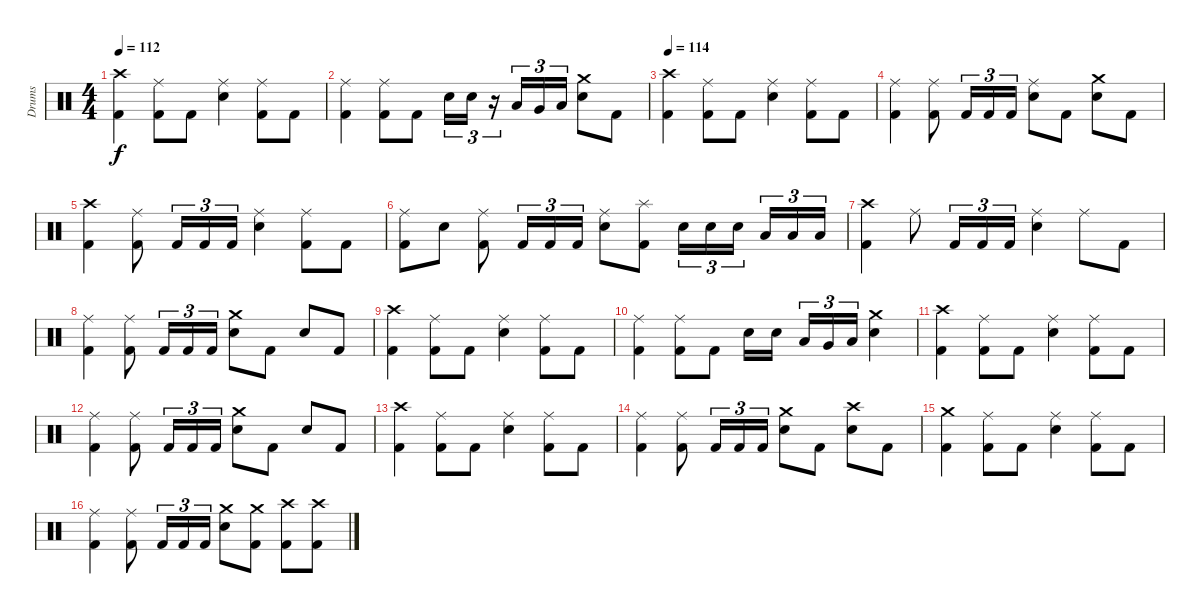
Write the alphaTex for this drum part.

\track ("Drums" "Drums") {instrument percussion}
\staff {score}
\articulation defaults
\ts (4 4)
\tempo 112
\clef neutral
\ks c
("Crash high (hit)" "Kick (hit) 2").4{dy f} ("Ride (middle)" "Kick (hit) 2").8 "Kick (hit) 2".8 ("Ride (middle)" "Electric Snare (hit)").4 ("Ride (middle)" "Kick (hit) 2").8 "Kick (hit) 2".8 |
("Ride (middle)" "Kick (hit) 2").4 ("Ride (middle)" "Kick (hit) 2").8 "Kick (hit) 2".8 "Electric Snare (hit)".16{tu (3 2)} "Electric Snare (hit)".16{tu (3 2)} r.16{tu (3 2)} "Low Tom (hit)".16{tu (3 2)} "Very Low Tom (hit)".16{tu (3 2)} "Low Floor Tom (hit)".16{tu (3 2)} ("Crash medium (hit)" "Electric Snare (hit)").8 "Kick (hit) 2".8 |
\tempo 114
("Crash high (hit)" "Kick (hit) 2").4 ("Ride (middle)" "Kick (hit) 2").8 "Kick (hit) 2".8 ("Ride (middle)" "Electric Snare (hit)").4 ("Ride (middle)" "Kick (hit) 2").8 "Kick (hit) 2".8 |
("Ride (middle)" "Kick (hit) 2").4 ("Ride (middle)" "Kick (hit) 2").8 "Kick (hit) 2".16{tu (3 2)} "Kick (hit) 2".16{tu (3 2)} "Kick (hit) 2".16{tu (3 2)} ("Ride (middle)" "Electric Snare (hit)").8 "Kick (hit) 2".8 ("Crash medium (hit)" "Electric Snare (hit)").8 "Kick (hit) 2".8 |
("Crash high (hit)" "Kick (hit) 2").4 ("Ride (middle)" "Kick (hit) 2").8 "Kick (hit) 2".16{tu (3 2)} "Kick (hit) 2".16{tu (3 2)} "Kick (hit) 2".16{tu (3 2)} ("Ride (middle)" "Electric Snare (hit)").4 ("Ride (middle)" "Kick (hit) 2").8 "Kick (hit) 2".8 |
("Ride (middle)" "Kick (hit) 2").8 "Electric Snare (hit)".8 ("Ride (middle)" "Kick (hit) 2").8 "Kick (hit) 2".16{tu (3 2)} "Kick (hit) 2".16{tu (3 2)} "Kick (hit) 2".16{tu (3 2)} ("Ride (middle)" "Electric Snare (hit)").8 ("Splash (hit)" "Kick (hit) 2").8 "Electric Snare (hit)".16{tu (3 2)} "Electric Snare (hit)".16{tu (3 2)} "Electric Snare (hit)".16{tu (3 2) beam splitsecondary} "Low Tom (hit)".16{tu (3 2)} "Low Tom (hit)".16{tu (3 2)} "Low Tom (hit)".16{tu (3 2)} |
("Crash high (hit)" "Kick (hit) 2").4 "Ride (middle)".8 "Kick (hit) 2".16{tu (3 2)} "Kick (hit) 2".16{tu (3 2)} "Kick (hit) 2".16{tu (3 2)} ("Ride (middle)" "Electric Snare (hit)").4 "Ride (middle)".8 "Kick (hit) 2".8 |
("Ride (middle)" "Kick (hit) 2").4 ("Ride (middle)" "Kick (hit) 2").8 "Kick (hit) 2".16{tu (3 2)} "Kick (hit) 2".16{tu (3 2)} "Kick (hit) 2".16{tu (3 2)} ("Crash medium (hit)" "Electric Snare (hit)").8 "Kick (hit) 2".8 "Electric Snare (hit)".8 "Kick (hit) 2".8 |
("Crash high (hit)" "Kick (hit) 2").4 ("Ride (middle)" "Kick (hit) 2").8 "Kick (hit) 2".8 ("Ride (middle)" "Electric Snare (hit)").4 ("Ride (middle)" "Kick (hit) 2").8 "Kick (hit) 2".8 |
("Ride (middle)" "Kick (hit) 2").4 ("Ride (middle)" "Kick (hit) 2").8 "Kick (hit) 2".8 "Electric Snare (hit)".16 "Electric Snare (hit)".16{beam splitsecondary} "Low Tom (hit)".16{tu (3 2)} "Very Low Tom (hit)".16{tu (3 2)} "Low Floor Tom (hit)".16{tu (3 2)} ("Crash medium (hit)" "Electric Snare (hit)").4 |
("Crash high (hit)" "Kick (hit) 2").4 ("Ride (middle)" "Kick (hit) 2").8 "Kick (hit) 2".8 ("Ride (middle)" "Electric Snare (hit)").4 ("Ride (middle)" "Kick (hit) 2").8 "Kick (hit) 2".8 |
("Ride (middle)" "Kick (hit) 2").4 ("Ride (middle)" "Kick (hit) 2").8 "Kick (hit) 2".16{tu (3 2)} "Kick (hit) 2".16{tu (3 2)} "Kick (hit) 2".16{tu (3 2)} ("Crash medium (hit)" "Electric Snare (hit)").8 "Kick (hit) 2".8 "Electric Snare (hit)".8 "Kick (hit) 2".8 |
("Crash high (hit)" "Kick (hit) 2").4 ("Ride (middle)" "Kick (hit) 2").8 "Kick (hit) 2".8 ("Ride (middle)" "Electric Snare (hit)").4 ("Ride (middle)" "Kick (hit) 2").8 "Kick (hit) 2".8 |
("Ride (middle)" "Kick (hit) 2").4 ("Ride (middle)" "Kick (hit) 2").8 "Kick (hit) 2".16{tu (3 2)} "Kick (hit) 2".16{tu (3 2)} "Kick (hit) 2".16{tu (3 2)} ("Crash medium (hit)" "Electric Snare (hit)").8 "Kick (hit) 2".8 ("Crash high (hit)" "Electric Snare (hit)").8 "Kick (hit) 2".8 |
("Crash medium (hit)" "Kick (hit) 2").4 ("Ride (middle)" "Kick (hit) 2").8 "Kick (hit) 2".8 ("Ride (middle)" "Electric Snare (hit)").4 ("Ride (middle)" "Kick (hit) 2").8 "Kick (hit) 2".8 |
("Ride (middle)" "Kick (hit) 2").4 ("Ride (middle)" "Kick (hit) 2").8 "Kick (hit) 2".16{tu (3 2)} "Kick (hit) 2".16{tu (3 2)} "Kick (hit) 2".16{tu (3 2)} ("Crash medium (hit)" "Electric Snare (hit)").8 ("Crash medium (hit)" "Kick (hit) 2").8 ("Crash high (hit)" "Kick (hit) 2").8 ("Crash high (hit)" "Kick (hit) 2").8
